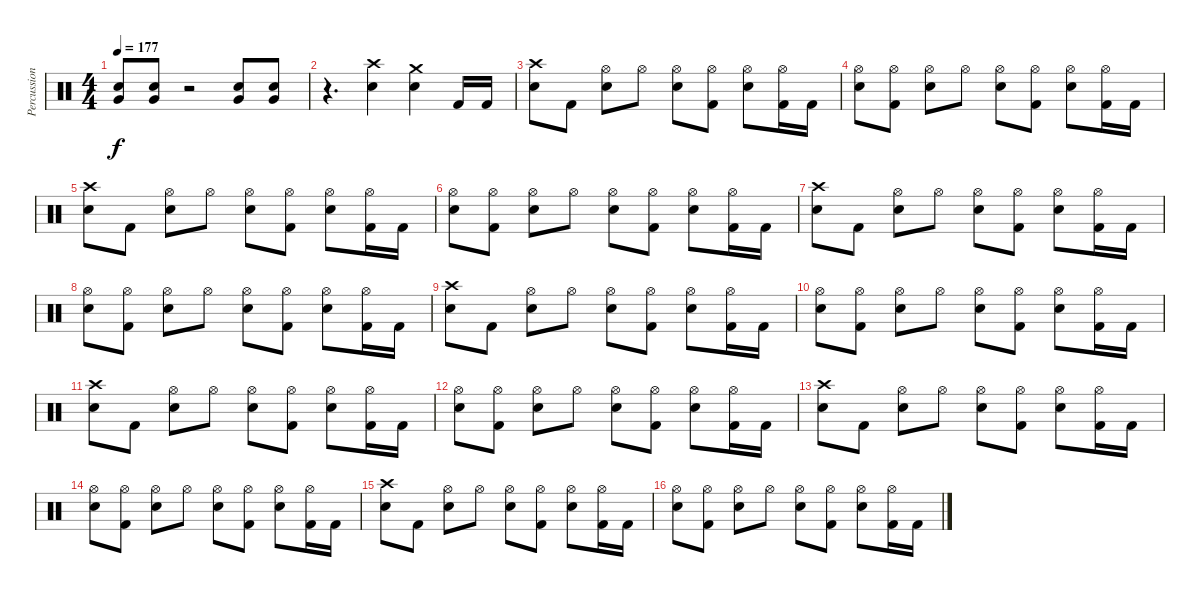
\track ("Percussion" "Percussion") {instrument percussion}
\staff {score}
\articulation defaults
\ts (4 4)
\tempo 177
\clef neutral
\ks c
("Snare (hit) 2" "Very Low Tom (hit)").8{dy f} ("Snare (hit) 2" "Very Low Tom (hit)").8 r.2 ("Snare (hit) 2" "Very Low Tom (hit)").8 ("Snare (hit) 2" "Very Low Tom (hit)").8 |
r.4{d} ("Crash high (hit)" "Snare (hit) 2").4 ("Crash medium (hit)" "Snare (hit) 2").4 "Kick (hit) 2".16 "Kick (hit) 2".16 |
("Crash high (hit)" "Snare (hit) 2").8 "Kick (hit) 2".8 ("Hi-Hat (open)" "Snare (hit) 2").8 "Hi-Hat (open)".8 ("Hi-Hat (open)" "Snare (hit) 2").8 ("Hi-Hat (open)" "Kick (hit) 2").8 ("Hi-Hat (open)" "Snare (hit) 2").8 ("Hi-Hat (open)" "Kick (hit) 2").16 "Kick (hit) 2".16 |
("Hi-Hat (open)" "Snare (hit) 2").8 ("Hi-Hat (open)" "Kick (hit) 2").8 ("Hi-Hat (open)" "Snare (hit) 2").8 "Hi-Hat (open)".8 ("Hi-Hat (open)" "Snare (hit) 2").8 ("Hi-Hat (open)" "Kick (hit) 2").8 ("Hi-Hat (open)" "Snare (hit) 2").8 ("Hi-Hat (open)" "Kick (hit) 2").16 "Kick (hit) 2".16 |
("Crash high (hit)" "Snare (hit) 2").8 "Kick (hit) 2".8 ("Hi-Hat (open)" "Snare (hit) 2").8 "Hi-Hat (open)".8 ("Hi-Hat (open)" "Snare (hit) 2").8 ("Hi-Hat (open)" "Kick (hit) 2").8 ("Hi-Hat (open)" "Snare (hit) 2").8 ("Hi-Hat (open)" "Kick (hit) 2").16 "Kick (hit) 2".16 |
("Hi-Hat (open)" "Snare (hit) 2").8 ("Hi-Hat (open)" "Kick (hit) 2").8 ("Hi-Hat (open)" "Snare (hit) 2").8 "Hi-Hat (open)".8 ("Hi-Hat (open)" "Snare (hit) 2").8 ("Hi-Hat (open)" "Kick (hit) 2").8 ("Hi-Hat (open)" "Snare (hit) 2").8 ("Hi-Hat (open)" "Kick (hit) 2").16 "Kick (hit) 2".16 |
("Crash high (hit)" "Snare (hit) 2").8 "Kick (hit) 2".8 ("Hi-Hat (open)" "Snare (hit) 2").8 "Hi-Hat (open)".8 ("Hi-Hat (open)" "Snare (hit) 2").8 ("Hi-Hat (open)" "Kick (hit) 2").8 ("Hi-Hat (open)" "Snare (hit) 2").8 ("Hi-Hat (open)" "Kick (hit) 2").16 "Kick (hit) 2".16 |
("Hi-Hat (open)" "Snare (hit) 2").8 ("Hi-Hat (open)" "Kick (hit) 2").8 ("Hi-Hat (open)" "Snare (hit) 2").8 "Hi-Hat (open)".8 ("Hi-Hat (open)" "Snare (hit) 2").8 ("Hi-Hat (open)" "Kick (hit) 2").8 ("Hi-Hat (open)" "Snare (hit) 2").8 ("Hi-Hat (open)" "Kick (hit) 2").16 "Kick (hit) 2".16 |
("Crash high (hit)" "Snare (hit) 2").8 "Kick (hit) 2".8 ("Hi-Hat (open)" "Snare (hit) 2").8 "Hi-Hat (open)".8 ("Hi-Hat (open)" "Snare (hit) 2").8 ("Hi-Hat (open)" "Kick (hit) 2").8 ("Hi-Hat (open)" "Snare (hit) 2").8 ("Hi-Hat (open)" "Kick (hit) 2").16 "Kick (hit) 2".16 |
("Hi-Hat (open)" "Snare (hit) 2").8 ("Hi-Hat (open)" "Kick (hit) 2").8 ("Hi-Hat (open)" "Snare (hit) 2").8 "Hi-Hat (open)".8 ("Hi-Hat (open)" "Snare (hit) 2").8 ("Hi-Hat (open)" "Kick (hit) 2").8 ("Hi-Hat (open)" "Snare (hit) 2").8 ("Hi-Hat (open)" "Kick (hit) 2").16 "Kick (hit) 2".16 |
("Crash high (hit)" "Snare (hit) 2").8 "Kick (hit) 2".8 ("Hi-Hat (open)" "Snare (hit) 2").8 "Hi-Hat (open)".8 ("Hi-Hat (open)" "Snare (hit) 2").8 ("Hi-Hat (open)" "Kick (hit) 2").8 ("Hi-Hat (open)" "Snare (hit) 2").8 ("Hi-Hat (open)" "Kick (hit) 2").16 "Kick (hit) 2".16 |
("Hi-Hat (open)" "Snare (hit) 2").8 ("Hi-Hat (open)" "Kick (hit) 2").8 ("Hi-Hat (open)" "Snare (hit) 2").8 "Hi-Hat (open)".8 ("Hi-Hat (open)" "Snare (hit) 2").8 ("Hi-Hat (open)" "Kick (hit) 2").8 ("Hi-Hat (open)" "Snare (hit) 2").8 ("Hi-Hat (open)" "Kick (hit) 2").16 "Kick (hit) 2".16 |
("Crash high (hit)" "Snare (hit) 2").8 "Kick (hit) 2".8 ("Hi-Hat (open)" "Snare (hit) 2").8 "Hi-Hat (open)".8 ("Hi-Hat (open)" "Snare (hit) 2").8 ("Hi-Hat (open)" "Kick (hit) 2").8 ("Hi-Hat (open)" "Snare (hit) 2").8 ("Hi-Hat (open)" "Kick (hit) 2").16 "Kick (hit) 2".16 |
("Hi-Hat (open)" "Snare (hit) 2").8 ("Hi-Hat (open)" "Kick (hit) 2").8 ("Hi-Hat (open)" "Snare (hit) 2").8 "Hi-Hat (open)".8 ("Hi-Hat (open)" "Snare (hit) 2").8 ("Hi-Hat (open)" "Kick (hit) 2").8 ("Hi-Hat (open)" "Snare (hit) 2").8 ("Hi-Hat (open)" "Kick (hit) 2").16 "Kick (hit) 2".16 |
("Crash high (hit)" "Snare (hit) 2").8 "Kick (hit) 2".8 ("Hi-Hat (open)" "Snare (hit) 2").8 "Hi-Hat (open)".8 ("Hi-Hat (open)" "Snare (hit) 2").8 ("Hi-Hat (open)" "Kick (hit) 2").8 ("Hi-Hat (open)" "Snare (hit) 2").8 ("Hi-Hat (open)" "Kick (hit) 2").16 "Kick (hit) 2".16 |
("Hi-Hat (open)" "Snare (hit) 2").8 ("Hi-Hat (open)" "Kick (hit) 2").8 ("Hi-Hat (open)" "Snare (hit) 2").8 "Hi-Hat (open)".8 ("Hi-Hat (open)" "Snare (hit) 2").8 ("Hi-Hat (open)" "Kick (hit) 2").8 ("Hi-Hat (open)" "Snare (hit) 2").8 ("Hi-Hat (open)" "Kick (hit) 2").16 "Kick (hit) 2".16
